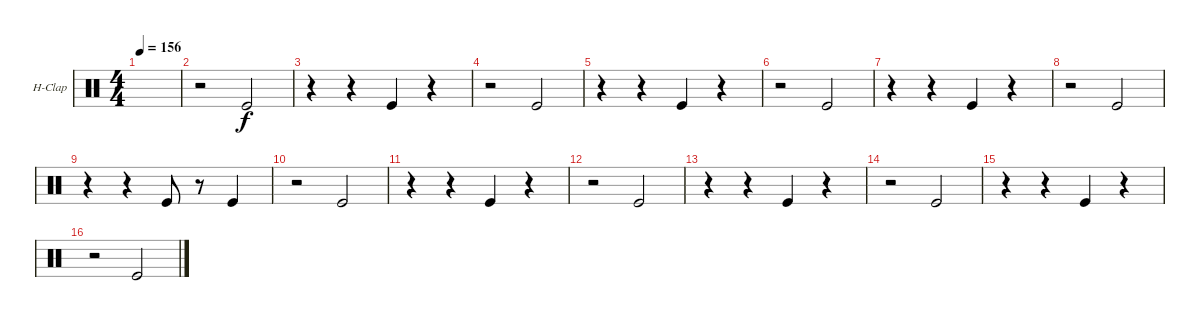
\defaultSystemsLayout 4
\bracketExtendMode groupsimilarinstruments
\firstSystemTrackNameOrientation horizontal
\otherSystemsTrackNameOrientation horizontal
\track ("Hand Clap" "H-Clap") {instrument percussion}
\staff {score}
\articulation defaults
\ts (4 4)
\tempo 156
\clef neutral
\scale
0.333333
\ks c
|
\scale
0.333333 r.2 "Kick (hit)".2 |
\scale
0.333333 r.4 r.4 "Kick (hit)".4 r.4 |
\scale
0.333333 r.2 "Kick (hit)".2 |
\scale
0.333333 r.4 r.4 "Kick (hit)".4 r.4 |
\scale
0.333333 r.2 "Kick (hit)".2 |
\scale
0.333333 r.4 r.4 "Kick (hit)".4 r.4 |
\scale
0.333333 r.2 "Kick (hit)".2 |
\scale
0.333333 r.4 r.4 "Kick (hit)".8 r.8 "Kick (hit)".4 |
\scale
0.333333 r.2 "Kick (hit)".2 |
\scale
0.333333 r.4 r.4 "Kick (hit)".4 r.4 |
\scale
0.333333 r.2 "Kick (hit)".2 |
\scale
0.333333 r.4 r.4 "Kick (hit)".4 r.4 |
\scale
0.333333 r.2 "Kick (hit)".2 |
\scale
0.333333 r.4 r.4 "Kick (hit)".4 r.4 |
\scale
0.333333 r.2 "Kick (hit)".2
